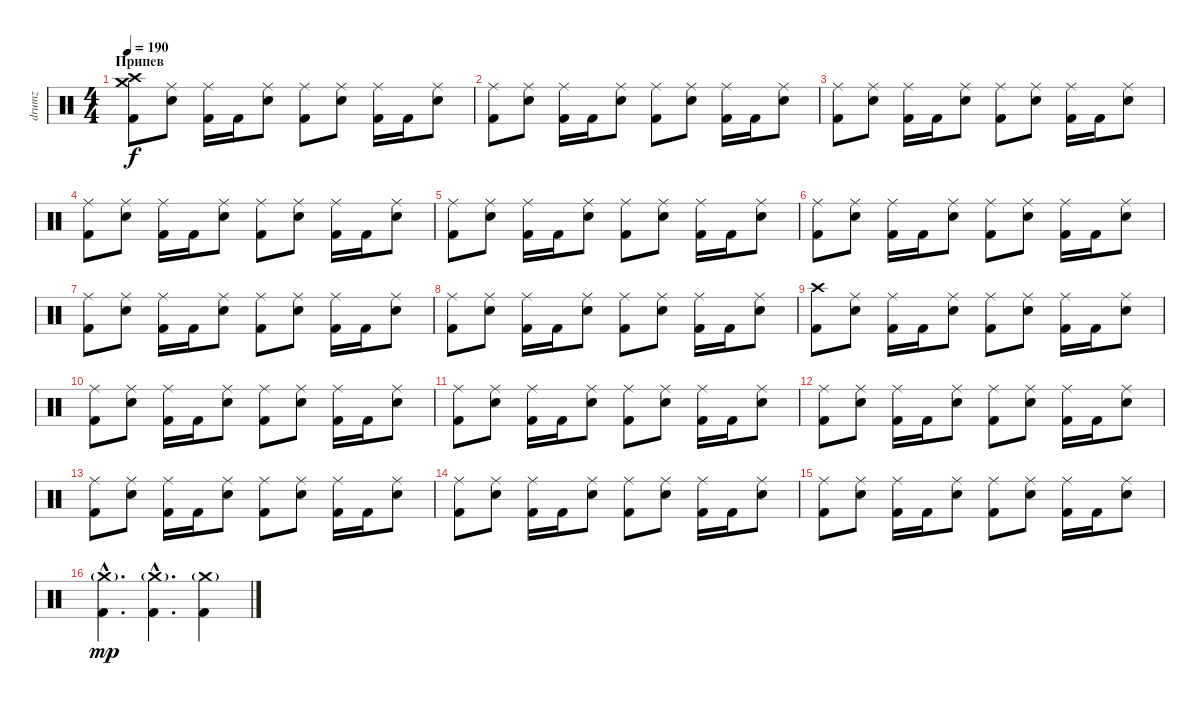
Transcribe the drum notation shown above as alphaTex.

\track ("drumz" "drumz") {instrument percussion}
\staff {score}
\articulation defaults
\ts (4 4)
\section ("" "Припев")
\tempo 190
\clef neutral
\ks c
("Crash medium (hit)" "Crash high (hit)" "Kick (hit) 2").8{dy f} ("Ride (middle)" "Electric Snare (hit)").8 ("Ride (middle)" "Kick (hit) 2").16 "Kick (hit) 2".16 ("Ride (middle)" "Electric Snare (hit)").8 ("Ride (middle)" "Kick (hit) 2").8 ("Ride (middle)" "Electric Snare (hit)").8 ("Ride (middle)" "Kick (hit) 2").16 "Kick (hit) 2".16 ("Ride (middle)" "Electric Snare (hit)").8 |
("Ride (middle)" "Kick (hit) 2").8 ("Ride (middle)" "Electric Snare (hit)").8 ("Ride (middle)" "Kick (hit) 2").16 "Kick (hit) 2".16 ("Ride (middle)" "Electric Snare (hit)").8 ("Ride (middle)" "Kick (hit) 2").8 ("Ride (middle)" "Electric Snare (hit)").8 ("Ride (middle)" "Kick (hit) 2").16 "Kick (hit) 2".16 ("Ride (middle)" "Electric Snare (hit)").8 |
("Ride (middle)" "Kick (hit) 2").8 ("Ride (middle)" "Electric Snare (hit)").8 ("Ride (middle)" "Kick (hit) 2").16 "Kick (hit) 2".16 ("Ride (middle)" "Electric Snare (hit)").8 ("Ride (middle)" "Kick (hit) 2").8 ("Ride (middle)" "Electric Snare (hit)").8 ("Ride (middle)" "Kick (hit) 2").16 "Kick (hit) 2".16 ("Ride (middle)" "Electric Snare (hit)").8 |
("Ride (middle)" "Kick (hit) 2").8 ("Ride (middle)" "Electric Snare (hit)").8 ("Ride (middle)" "Kick (hit) 2").16 "Kick (hit) 2".16 ("Ride (middle)" "Electric Snare (hit)").8 ("Ride (middle)" "Kick (hit) 2").8 ("Ride (middle)" "Electric Snare (hit)").8 ("Ride (middle)" "Kick (hit) 2").16 "Kick (hit) 2".16 ("Ride (middle)" "Electric Snare (hit)").8 |
("Ride (middle)" "Kick (hit) 2").8 ("Ride (middle)" "Electric Snare (hit)").8 ("Ride (middle)" "Kick (hit) 2").16 "Kick (hit) 2".16 ("Ride (middle)" "Electric Snare (hit)").8 ("Ride (middle)" "Kick (hit) 2").8 ("Ride (middle)" "Electric Snare (hit)").8 ("Ride (middle)" "Kick (hit) 2").16 "Kick (hit) 2".16 ("Ride (middle)" "Electric Snare (hit)").8 |
("Ride (middle)" "Kick (hit) 2").8 ("Ride (middle)" "Electric Snare (hit)").8 ("Ride (middle)" "Kick (hit) 2").16 "Kick (hit) 2".16 ("Ride (middle)" "Electric Snare (hit)").8 ("Ride (middle)" "Kick (hit) 2").8 ("Ride (middle)" "Electric Snare (hit)").8 ("Ride (middle)" "Kick (hit) 2").16 "Kick (hit) 2".16 ("Ride (middle)" "Electric Snare (hit)").8 |
("Ride (middle)" "Kick (hit) 2").8 ("Ride (middle)" "Electric Snare (hit)").8 ("Ride (middle)" "Kick (hit) 2").16 "Kick (hit) 2".16 ("Ride (middle)" "Electric Snare (hit)").8 ("Ride (middle)" "Kick (hit) 2").8 ("Ride (middle)" "Electric Snare (hit)").8 ("Ride (middle)" "Kick (hit) 2").16 "Kick (hit) 2".16 ("Ride (middle)" "Electric Snare (hit)").8 |
("Ride (middle)" "Kick (hit) 2").8 ("Ride (middle)" "Electric Snare (hit)").8 ("Ride (middle)" "Kick (hit) 2").16 "Kick (hit) 2".16 ("Ride (middle)" "Electric Snare (hit)").8 ("Ride (middle)" "Kick (hit) 2").8 ("Ride (middle)" "Electric Snare (hit)").8 ("Ride (middle)" "Kick (hit) 2").16 "Kick (hit) 2".16 ("Ride (middle)" "Electric Snare (hit)").8 |
("Crash high (hit)" "Kick (hit) 2").8 ("Ride (middle)" "Electric Snare (hit)").8 ("Ride (middle)" "Kick (hit) 2").16 "Kick (hit) 2".16 ("Ride (middle)" "Electric Snare (hit)").8 ("Ride (middle)" "Kick (hit) 2").8 ("Ride (middle)" "Electric Snare (hit)").8 ("Ride (middle)" "Kick (hit) 2").16 "Kick (hit) 2".16 ("Ride (middle)" "Electric Snare (hit)").8 |
("Ride (middle)" "Kick (hit) 2").8 ("Ride (middle)" "Electric Snare (hit)").8 ("Ride (middle)" "Kick (hit) 2").16 "Kick (hit) 2".16 ("Ride (middle)" "Electric Snare (hit)").8 ("Ride (middle)" "Kick (hit) 2").8 ("Ride (middle)" "Electric Snare (hit)").8 ("Ride (middle)" "Kick (hit) 2").16 "Kick (hit) 2".16 ("Ride (middle)" "Electric Snare (hit)").8 |
("Ride (middle)" "Kick (hit) 2").8 ("Ride (middle)" "Electric Snare (hit)").8 ("Ride (middle)" "Kick (hit) 2").16 "Kick (hit) 2".16 ("Ride (middle)" "Electric Snare (hit)").8 ("Ride (middle)" "Kick (hit) 2").8 ("Ride (middle)" "Electric Snare (hit)").8 ("Ride (middle)" "Kick (hit) 2").16 "Kick (hit) 2".16 ("Ride (middle)" "Electric Snare (hit)").8 |
("Ride (middle)" "Kick (hit) 2").8 ("Ride (middle)" "Electric Snare (hit)").8 ("Ride (middle)" "Kick (hit) 2").16 "Kick (hit) 2".16 ("Ride (middle)" "Electric Snare (hit)").8 ("Ride (middle)" "Kick (hit) 2").8 ("Ride (middle)" "Electric Snare (hit)").8 ("Ride (middle)" "Kick (hit) 2").16 "Kick (hit) 2".16 ("Ride (middle)" "Electric Snare (hit)").8 |
("Ride (middle)" "Kick (hit) 2").8 ("Ride (middle)" "Electric Snare (hit)").8 ("Ride (middle)" "Kick (hit) 2").16 "Kick (hit) 2".16 ("Ride (middle)" "Electric Snare (hit)").8 ("Ride (middle)" "Kick (hit) 2").8 ("Ride (middle)" "Electric Snare (hit)").8 ("Ride (middle)" "Kick (hit) 2").16 "Kick (hit) 2".16 ("Ride (middle)" "Electric Snare (hit)").8 |
("Ride (middle)" "Kick (hit) 2").8 ("Ride (middle)" "Electric Snare (hit)").8 ("Ride (middle)" "Kick (hit) 2").16 "Kick (hit) 2".16 ("Ride (middle)" "Electric Snare (hit)").8 ("Ride (middle)" "Kick (hit) 2").8 ("Ride (middle)" "Electric Snare (hit)").8 ("Ride (middle)" "Kick (hit) 2").16 "Kick (hit) 2".16 ("Ride (middle)" "Electric Snare (hit)").8 |
("Ride (middle)" "Kick (hit) 2").8 ("Ride (middle)" "Electric Snare (hit)").8 ("Ride (middle)" "Kick (hit) 2").16 "Kick (hit) 2".16 ("Ride (middle)" "Electric Snare (hit)").8 ("Ride (middle)" "Kick (hit) 2").8 ("Ride (middle)" "Electric Snare (hit)").8 ("Ride (middle)" "Kick (hit) 2").16 "Kick (hit) 2".16 ("Ride (middle)" "Electric Snare (hit)").8 |
("Crash medium (hit)"{g hac} "Kick (hit) 2"{hac}).4{d dy mp} ("Crash medium (hit)"{g hac} "Kick (hit) 2"{hac}).4{d} ("Crash medium (hit)"{g} "Kick (hit) 2").4
